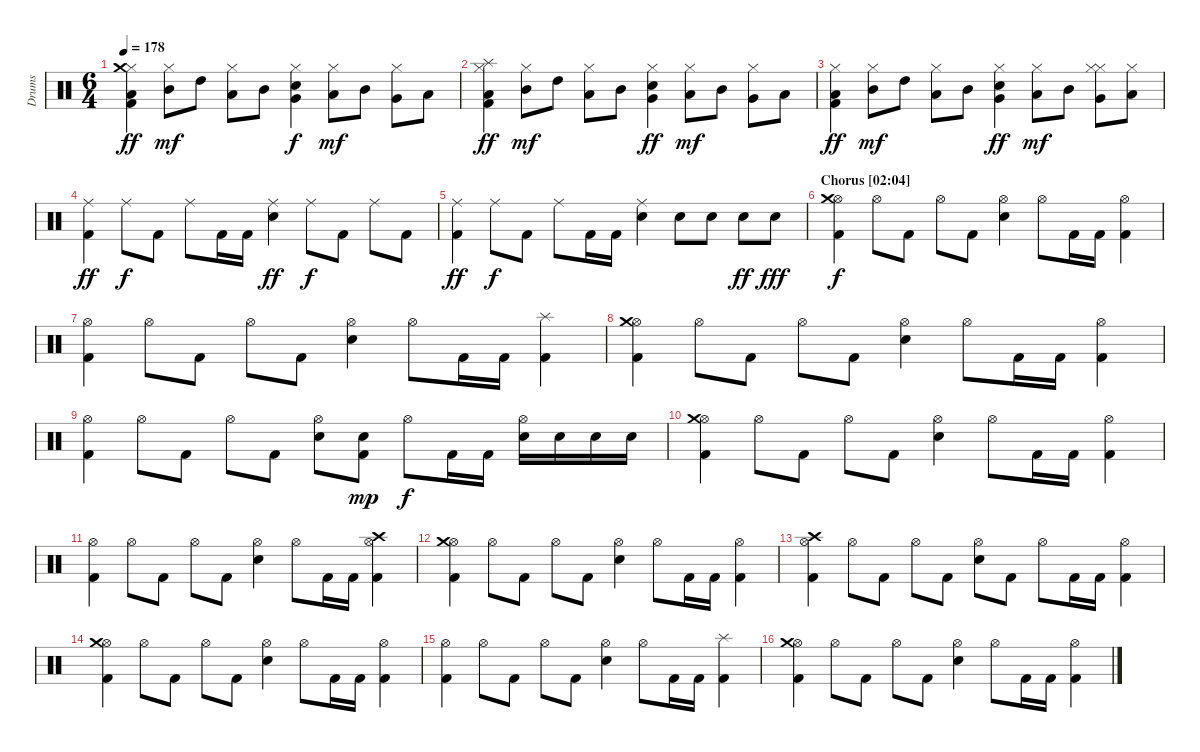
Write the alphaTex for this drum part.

\track ("Drums" "Drums") {instrument percussion}
\staff {score}
\articulation defaults
\ts (6 4)
\tempo 178
\clef neutral
\ks c
("Hi-Hat (closed)" "Crash medium (hit)" "Low Floor Tom (hit)" "Kick (hit) 2").4{dy ff} ("Hi-Hat (closed)" "Mid Tom (hit)").8{dy mf} "High Tom (hit)".8 ("Hi-Hat (closed)" "Low Tom (hit)").8 "Mid Tom (hit)".8 ("Hi-Hat (closed)" "Very Low Tom (hit)" "Electric Snare (hit)").4{dy f} ("Hi-Hat (closed)" "Low Tom (hit)").8{dy mf} "Mid Tom (hit)".8 ("Hi-Hat (closed)" "Very Low Tom (hit)").8 "Low Tom (hit)".8 |
("Hi-Hat (closed)" "Splash (hit)" "Low Tom (hit)" "Kick (hit) 2").4{dy ff} ("Hi-Hat (closed)" "Mid Tom (hit)").8{dy mf} "High Tom (hit)".8 ("Hi-Hat (closed)" "Low Tom (hit)").8 "Mid Tom (hit)".8 ("Hi-Hat (closed)" "Very Low Tom (hit)" "Electric Snare (hit)").4{dy ff} ("Hi-Hat (closed)" "Low Tom (hit)").8{dy mf} "Mid Tom (hit)".8 ("Hi-Hat (closed)" "Very Low Tom (hit)").8 "Low Tom (hit)".8 |
("Hi-Hat (closed)" "Low Floor Tom (hit)" "Kick (hit) 2").4{dy ff} ("Hi-Hat (closed)" "Mid Tom (hit)").8{dy mf} "High Tom (hit)".8 ("Hi-Hat (closed)" "Low Tom (hit)").8 "Mid Tom (hit)".8 ("Hi-Hat (closed)" "Very Low Tom (hit)" "Electric Snare (hit)").4{dy ff} ("Hi-Hat (closed)" "Low Tom (hit)").8{dy mf} "Mid Tom (hit)".8 ("Hi-Hat (closed)" "Hi-Hat (closed)" "Very Low Tom (hit)").8 ("Hi-Hat (closed)" "Low Tom (hit)").8 |
("Ride (middle)" "Kick (hit) 2").4{dy ff} "Ride (middle)".8{dy f} "Kick (hit) 2".8 "Ride (middle)".8 "Kick (hit) 2".16 "Kick (hit) 2".16 ("Ride (middle)" "Electric Snare (hit)").4{dy ff} "Ride (middle)".8{dy f} "Kick (hit) 2".8 "Ride (middle)".8 "Kick (hit) 2".8 |
("Ride (middle)" "Kick (hit) 2").4{dy ff} "Ride (middle)".8{dy f} "Kick (hit) 2".8 "Ride (middle)".8 "Kick (hit) 2".16 "Kick (hit) 2".16 ("Ride (middle)" "Electric Snare (hit)").4 "Electric Snare (hit)".8 "Electric Snare (hit)".8 "Electric Snare (hit)".8{dy ff} "Electric Snare (hit)".8{dy fff} |
\section ("" "Chorus [02:04]")
("Hi-Hat (open)" "Crash medium (hit)" "Kick (hit) 2").4{dy f} "Hi-Hat (open)".8 "Kick (hit) 2".8 "Hi-Hat (open)".8 "Kick (hit) 2".8 ("Hi-Hat (open)" "Electric Snare (hit)").4 "Hi-Hat (open)".8 "Kick (hit) 2".16 "Kick (hit) 2".16 ("Hi-Hat (open)" "Kick (hit) 2").4 |
("Hi-Hat (open)" "Kick (hit) 2").4 "Hi-Hat (open)".8 "Kick (hit) 2".8 "Hi-Hat (open)".8 "Kick (hit) 2".8 ("Hi-Hat (open)" "Electric Snare (hit)").4 "Hi-Hat (open)".8 "Kick (hit) 2".16 "Kick (hit) 2".16 ("Splash (hit)" "Kick (hit) 2").4 |
("Hi-Hat (open)" "Crash medium (hit)" "Kick (hit) 2").4 "Hi-Hat (open)".8 "Kick (hit) 2".8 "Hi-Hat (open)".8 "Kick (hit) 2".8 ("Hi-Hat (open)" "Electric Snare (hit)").4 "Hi-Hat (open)".8 "Kick (hit) 2".16 "Kick (hit) 2".16 ("Hi-Hat (open)" "Kick (hit) 2").4 |
("Hi-Hat (open)" "Kick (hit) 2").4 "Hi-Hat (open)".8 "Kick (hit) 2".8 "Hi-Hat (open)".8 "Kick (hit) 2".8 ("Hi-Hat (open)" "Electric Snare (hit)").8 ("Snare (hit) 2" "Kick (hit) 2").8{dy mp} "Hi-Hat (open)".8{dy f} "Kick (hit) 2".16 "Kick (hit) 2".16 ("Hi-Hat (open)" "Electric Snare (hit)").16 "Electric Snare (hit)".16 "Electric Snare (hit)".16 "Electric Snare (hit)".16 |
("Hi-Hat (open)" "Crash medium (hit)" "Kick (hit) 2").4 "Hi-Hat (open)".8 "Kick (hit) 2".8 "Hi-Hat (open)".8 "Kick (hit) 2".8 ("Hi-Hat (open)" "Electric Snare (hit)").4 "Hi-Hat (open)".8 "Kick (hit) 2".16 "Kick (hit) 2".16 ("Hi-Hat (open)" "Kick (hit) 2").4 |
("Hi-Hat (open)" "Kick (hit) 2").4 "Hi-Hat (open)".8 "Kick (hit) 2".8 "Hi-Hat (open)".8 "Kick (hit) 2".8 ("Hi-Hat (open)" "Electric Snare (hit)").4 "Hi-Hat (open)".8 "Kick (hit) 2".16 "Kick (hit) 2".16 ("Hi-Hat (open)" "Crash high (hit)" "Kick (hit) 2").4 |
("Hi-Hat (open)" "Crash medium (hit)" "Kick (hit) 2").4 "Hi-Hat (open)".8 "Kick (hit) 2".8 "Hi-Hat (open)".8 "Kick (hit) 2".8 ("Hi-Hat (open)" "Electric Snare (hit)").4 "Hi-Hat (open)".8 "Kick (hit) 2".16 "Kick (hit) 2".16 ("Hi-Hat (open)" "Kick (hit) 2").4 |
("Hi-Hat (open)" "Crash high (hit)" "Kick (hit) 2").4 "Hi-Hat (open)".8 "Kick (hit) 2".8 "Hi-Hat (open)".8 "Kick (hit) 2".8 ("Hi-Hat (open)" "Electric Snare (hit)").8 "Kick (hit) 2".8 "Hi-Hat (open)".8 "Kick (hit) 2".16 "Kick (hit) 2".16 ("Hi-Hat (open)" "Kick (hit) 2").4 |
\section ("" "")
("Hi-Hat (open)" "Crash medium (hit)" "Kick (hit) 2").4 "Hi-Hat (open)".8 "Kick (hit) 2".8 "Hi-Hat (open)".8 "Kick (hit) 2".8 ("Hi-Hat (open)" "Electric Snare (hit)").4 "Hi-Hat (open)".8 "Kick (hit) 2".16 "Kick (hit) 2".16 ("Hi-Hat (open)" "Kick (hit) 2").4 |
("Hi-Hat (open)" "Kick (hit) 2").4 "Hi-Hat (open)".8 "Kick (hit) 2".8 "Hi-Hat (open)".8 "Kick (hit) 2".8 ("Hi-Hat (open)" "Electric Snare (hit)").4 "Hi-Hat (open)".8 "Kick (hit) 2".16 "Kick (hit) 2".16 ("Splash (hit)" "Kick (hit) 2").4 |
("Hi-Hat (open)" "Crash medium (hit)" "Kick (hit) 2").4 "Hi-Hat (open)".8 "Kick (hit) 2".8 "Hi-Hat (open)".8 "Kick (hit) 2".8 ("Hi-Hat (open)" "Electric Snare (hit)").4 "Hi-Hat (open)".8 "Kick (hit) 2".16 "Kick (hit) 2".16 ("Hi-Hat (open)" "Kick (hit) 2").4
